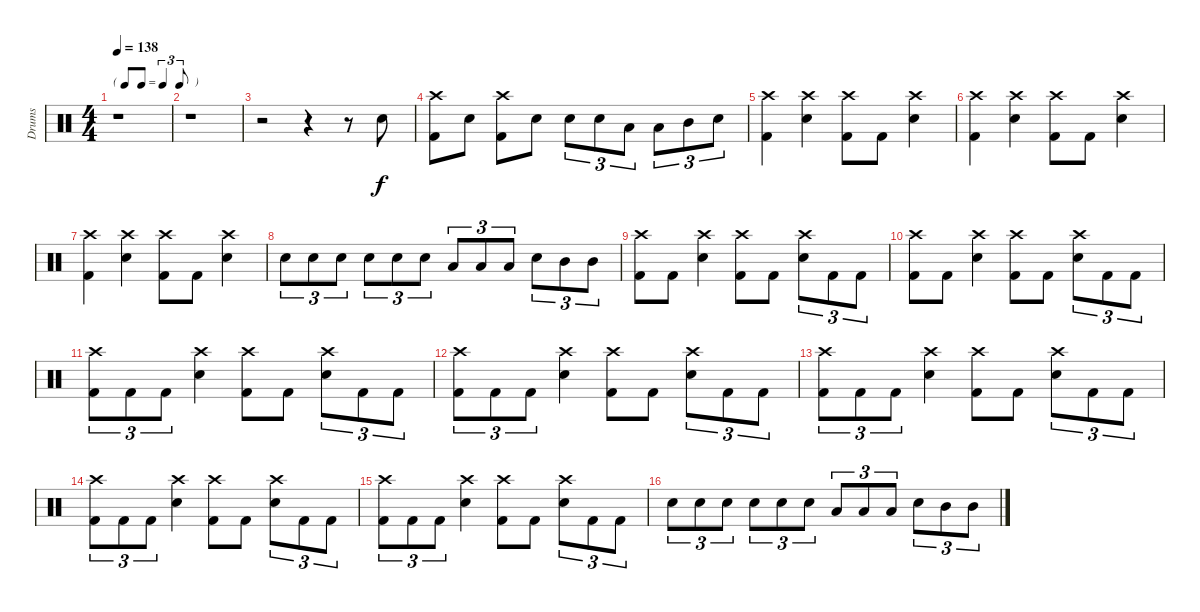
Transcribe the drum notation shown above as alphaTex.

\track ("Drums" "Drums") {instrument percussion}
\staff {score}
\articulation defaults
\ts (4 4)
\tf triplet8th
\tempo 138
\clef neutral
\ks c
r.1{dy f} |
r.1 |
r.2 r.4 r.8 "Snare (hit) 2".8 |
("Crash high (hit)" "Kick (hit) 2").8 "Snare (hit) 2".8 ("Crash high (hit)" "Kick (hit) 2").8 "Snare (hit) 2".8 "Snare (hit) 2".8{tu (3 2)} "Snare (hit) 2".8{tu (3 2)} "Low Tom (hit)".8{tu (3 2)} "Low Tom (hit)".8{tu (3 2)} "Mid Tom (hit)".8{tu (3 2)} "Snare (hit) 2".8{tu (3 2)} |
("Crash high (hit)" "Kick (hit) 2").4 ("Crash high (hit)" "Snare (hit) 2").4 ("Crash high (hit)" "Kick (hit) 2").8 "Kick (hit) 2".8 ("Crash high (hit)" "Snare (hit) 2").4 |
("Crash high (hit)" "Kick (hit) 2").4 ("Crash high (hit)" "Snare (hit) 2").4 ("Crash high (hit)" "Kick (hit) 2").8 "Kick (hit) 2".8 ("Crash high (hit)" "Snare (hit) 2").4 |
("Crash high (hit)" "Kick (hit) 2").4 ("Crash high (hit)" "Snare (hit) 2").4 ("Crash high (hit)" "Kick (hit) 2").8 "Kick (hit) 2".8 ("Crash high (hit)" "Snare (hit) 2").4 |
"Snare (hit) 2".8{tu (3 2)} "Snare (hit) 2".8{tu (3 2)} "Snare (hit) 2".8{tu (3 2)} "Snare (hit) 2".8{tu (3 2)} "Snare (hit) 2".8{tu (3 2)} "Snare (hit) 2".8{tu (3 2)} "Low Tom (hit)".8{tu (3 2)} "Low Tom (hit)".8{tu (3 2)} "Low Tom (hit)".8{tu (3 2)} "Snare (hit) 2".8{tu (3 2)} "Mid Tom (hit)".8{tu (3 2)} "Mid Tom (hit)".8{tu (3 2)} |
("Crash high (hit)" "Kick (hit) 2").8 "Kick (hit) 2".8 ("Crash high (hit)" "Snare (hit) 2").4 ("Crash high (hit)" "Kick (hit) 2").8 "Kick (hit) 2".8 ("Crash high (hit)" "Snare (hit) 2").8{tu (3 2)} "Kick (hit) 2".8{tu (3 2)} "Kick (hit) 2".8{tu (3 2)} |
("Crash high (hit)" "Kick (hit) 2").8 "Kick (hit) 2".8 ("Crash high (hit)" "Snare (hit) 2").4 ("Crash high (hit)" "Kick (hit) 2").8 "Kick (hit) 2".8 ("Crash high (hit)" "Snare (hit) 2").8{tu (3 2)} "Kick (hit) 2".8{tu (3 2)} "Kick (hit) 2".8{tu (3 2)} |
("Crash high (hit)" "Kick (hit) 2").8{tu (3 2)} "Kick (hit) 2".8{tu (3 2)} "Kick (hit) 2".8{tu (3 2)} ("Crash high (hit)" "Snare (hit) 2").4 ("Crash high (hit)" "Kick (hit) 2").8 "Kick (hit) 2".8 ("Crash high (hit)" "Snare (hit) 2").8{tu (3 2)} "Kick (hit) 2".8{tu (3 2)} "Kick (hit) 2".8{tu (3 2)} |
("Crash high (hit)" "Kick (hit) 2").8{tu (3 2)} "Kick (hit) 2".8{tu (3 2)} "Kick (hit) 2".8{tu (3 2)} ("Crash high (hit)" "Snare (hit) 2").4 ("Crash high (hit)" "Kick (hit) 2").8 "Kick (hit) 2".8 ("Crash high (hit)" "Snare (hit) 2").8{tu (3 2)} "Kick (hit) 2".8{tu (3 2)} "Kick (hit) 2".8{tu (3 2)} |
("Crash high (hit)" "Kick (hit) 2").8{tu (3 2)} "Kick (hit) 2".8{tu (3 2)} "Kick (hit) 2".8{tu (3 2)} ("Crash high (hit)" "Snare (hit) 2").4 ("Crash high (hit)" "Kick (hit) 2").8 "Kick (hit) 2".8 ("Crash high (hit)" "Snare (hit) 2").8{tu (3 2)} "Kick (hit) 2".8{tu (3 2)} "Kick (hit) 2".8{tu (3 2)} |
("Crash high (hit)" "Kick (hit) 2").8{tu (3 2)} "Kick (hit) 2".8{tu (3 2)} "Kick (hit) 2".8{tu (3 2)} ("Crash high (hit)" "Snare (hit) 2").4 ("Crash high (hit)" "Kick (hit) 2").8 "Kick (hit) 2".8 ("Crash high (hit)" "Snare (hit) 2").8{tu (3 2)} "Kick (hit) 2".8{tu (3 2)} "Kick (hit) 2".8{tu (3 2)} |
("Crash high (hit)" "Kick (hit) 2").8{tu (3 2)} "Kick (hit) 2".8{tu (3 2)} "Kick (hit) 2".8{tu (3 2)} ("Crash high (hit)" "Snare (hit) 2").4 ("Crash high (hit)" "Kick (hit) 2").8 "Kick (hit) 2".8 ("Crash high (hit)" "Snare (hit) 2").8{tu (3 2)} "Kick (hit) 2".8{tu (3 2)} "Kick (hit) 2".8{tu (3 2)} |
"Snare (hit) 2".8{tu (3 2)} "Snare (hit) 2".8{tu (3 2)} "Snare (hit) 2".8{tu (3 2)} "Snare (hit) 2".8{tu (3 2)} "Snare (hit) 2".8{tu (3 2)} "Snare (hit) 2".8{tu (3 2)} "Low Tom (hit)".8{tu (3 2)} "Low Tom (hit)".8{tu (3 2)} "Low Tom (hit)".8{tu (3 2)} "Snare (hit) 2".8{tu (3 2)} "Mid Tom (hit)".8{tu (3 2)} "Mid Tom (hit)".8{tu (3 2)}
